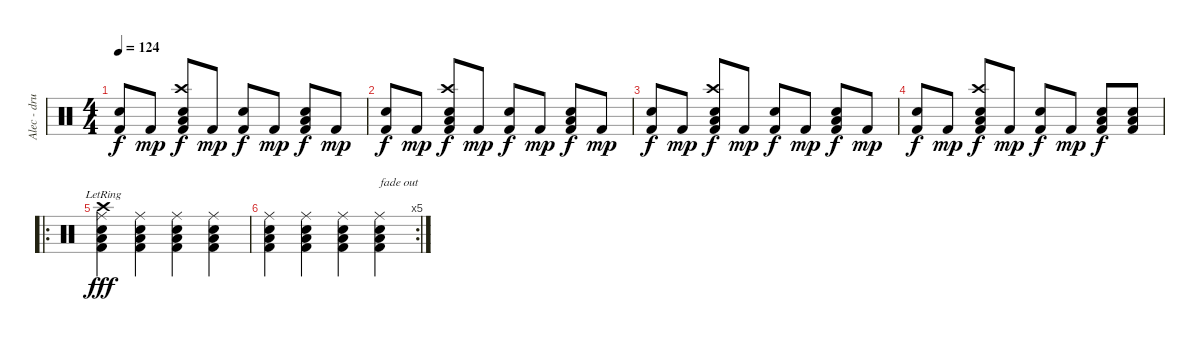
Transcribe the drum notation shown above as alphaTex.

\track ("Alec - drums" "Alec - dru") {instrument percussion}
\staff {score}
\articulation defaults
\ts (4 4)
\tempo 124
\clef neutral
\ks c
("Kick (hit) 2" "Snare (hit) 2").8{dy f} "Kick (hit) 2".8{dy mp} ("Crash high (hit)" "Kick (hit) 2" "Snare (hit) 2" "Low Tom (hit)").8{dy f} "Kick (hit) 2".8{dy mp} ("Kick (hit) 2" "Snare (hit) 2").8{dy f} "Kick (hit) 2".8{dy mp} ("Kick (hit) 2" "Snare (hit) 2" "Low Tom (hit)").8{dy f} "Kick (hit) 2".8{dy mp} |
("Kick (hit) 2" "Snare (hit) 2").8{dy f} "Kick (hit) 2".8{dy mp} ("Crash high (hit)" "Kick (hit) 2" "Snare (hit) 2" "Low Tom (hit)").8{dy f} "Kick (hit) 2".8{dy mp} ("Kick (hit) 2" "Snare (hit) 2").8{dy f} "Kick (hit) 2".8{dy mp} ("Kick (hit) 2" "Snare (hit) 2" "Low Tom (hit)").8{dy f} "Kick (hit) 2".8{dy mp} |
("Kick (hit) 2" "Snare (hit) 2").8{dy f} "Kick (hit) 2".8{dy mp} ("Crash high (hit)" "Kick (hit) 2" "Snare (hit) 2" "Low Tom (hit)").8{dy f} "Kick (hit) 2".8{dy mp} ("Kick (hit) 2" "Snare (hit) 2").8{dy f} "Kick (hit) 2".8{dy mp} ("Kick (hit) 2" "Snare (hit) 2" "Low Tom (hit)").8{dy f} "Kick (hit) 2".8{dy mp} |
("Kick (hit) 2" "Snare (hit) 2").8{dy f} "Kick (hit) 2".8{dy mp} ("Crash high (hit)" "Kick (hit) 2" "Snare (hit) 2" "Low Tom (hit)").8{dy f} "Kick (hit) 2".8{dy mp} ("Kick (hit) 2" "Snare (hit) 2").8{dy f} "Kick (hit) 2".8{dy mp} ("Kick (hit) 2" "Snare (hit) 2" "Low Tom (hit)").8{dy f} ("Kick (hit) 2" "Snare (hit) 2" "Low Tom (hit)").8 |
\ro
("Crash high (hit)"{lr} "Ride (middle)" "Kick (hit) 2" "Snare (hit) 2" "Low Tom (hit)").4{dy fff} ("Ride (middle)" "Kick (hit) 2" "Snare (hit) 2" "Low Tom (hit)").4 ("Ride (middle)" "Kick (hit) 2" "Snare (hit) 2" "Low Tom (hit)").4 ("Ride (middle)" "Kick (hit) 2" "Snare (hit) 2" "Low Tom (hit)").4 |
\rc 5
("Ride (middle)" "Kick (hit) 2" "Snare (hit) 2" "Low Tom (hit)").4 ("Ride (middle)" "Kick (hit) 2" "Snare (hit) 2" "Low Tom (hit)").4 ("Ride (middle)" "Kick (hit) 2" "Snare (hit) 2" "Low Tom (hit)").4 ("Ride (middle)" "Kick (hit) 2" "Snare (hit) 2" "Low Tom (hit)").4{txt "fade out"}
